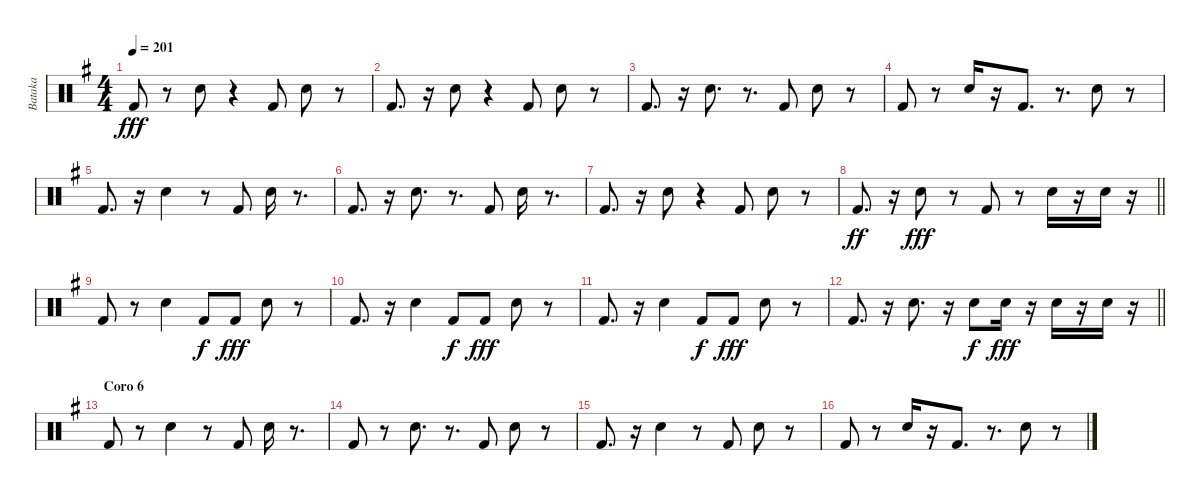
\track ("Bataka" "Bataka") {instrument percussion}
\staff {score}
\articulation defaults
\ts (4 4)
\tempo 201
\clef neutral
\ks g "Kick (hit) 2".8{dy fff}
r.8 "Electric Snare (hit)".8 r.4 "Kick (hit) 2".8 "Electric Snare (hit)".8 r.8 |
"Kick (hit) 2".8{d} r.16 "Electric Snare (hit)".8 r.4 "Kick (hit) 2".8 "Electric Snare (hit)".8 r.8 |
"Kick (hit) 2".8{d} r.16 "Electric Snare (hit)".8{d} r.8{d} "Kick (hit) 2".8 "Electric Snare (hit)".8 r.8 |
"Kick (hit) 2".8 r.8 "Electric Snare (hit)".16 r.16 "Kick (hit) 2".8{d} r.8{d} "Electric Snare (hit)".8 r.8 |
"Kick (hit) 2".8{d} r.16 "Electric Snare (hit)".4 r.8 "Kick (hit) 2".8 "Electric Snare (hit)".16 r.8{d} |
"Kick (hit) 2".8{d} r.16 "Electric Snare (hit)".8{d} r.8{d} "Kick (hit) 2".8 "Electric Snare (hit)".16 r.8{d} |
"Kick (hit) 2".8{d} r.16 "Electric Snare (hit)".8 r.4 "Kick (hit) 2".8 "Electric Snare (hit)".8 r.8 |
\barLineRight lightlight "Kick (hit) 2".8{d dy ff}
r.16 "Electric Snare (hit)".8{dy fff} r.8 "Kick (hit) 2".8 r.8 "Electric Snare (hit)".16 r.16 "Electric Snare (hit)".16 r.16 |
"Kick (hit) 2".8 r.8 "Electric Snare (hit)".4 "Kick (hit) 2".8{dy f} "Kick (hit) 2".8{dy fff} "Electric Snare (hit)".8 r.8 |
"Kick (hit) 2".8{d} r.16 "Electric Snare (hit)".4 "Kick (hit) 2".8{dy f} "Kick (hit) 2".8{dy fff} "Electric Snare (hit)".8 r.8 |
"Kick (hit) 2".8{d} r.16 "Electric Snare (hit)".4 "Kick (hit) 2".8{dy f} "Kick (hit) 2".8{dy fff} "Electric Snare (hit)".8 r.8 |
\barLineRight lightlight "Kick (hit) 2".8{d}
r.16 "Electric Snare (hit)".8{d} r.16 "Electric Snare (hit)".8{dy f} "Electric Snare (hit)".16{dy fff} r.16 "Electric Snare (hit)".16 r.16 "Electric Snare (hit)".16 r.16 |
\section ("" "Coro 6")
"Kick (hit) 2".8 r.8 "Electric Snare (hit)".4 r.8 "Kick (hit) 2".8 "Electric Snare (hit)".16 r.8{d} |
"Kick (hit) 2".8 r.8 "Electric Snare (hit)".8{d} r.8{d} "Kick (hit) 2".8 "Electric Snare (hit)".8 r.8 |
"Kick (hit) 2".8{d} r.16 "Electric Snare (hit)".4 r.8 "Kick (hit) 2".8 "Electric Snare (hit)".8 r.8 |
"Kick (hit) 2".8 r.8 "Electric Snare (hit)".16 r.16 "Kick (hit) 2".8{d} r.8{d} "Electric Snare (hit)".8 r.8
